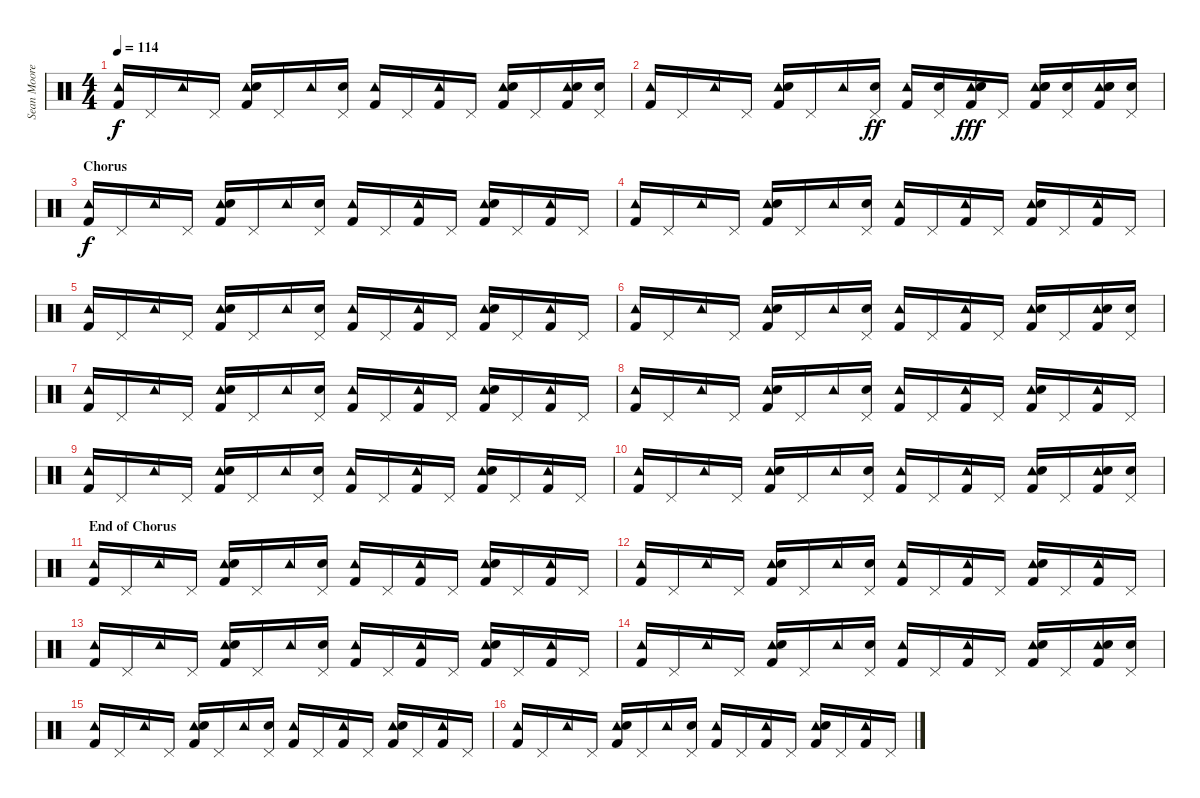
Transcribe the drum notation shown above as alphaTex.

\track ("Sean Moore" "Sean Moore") {instrument percussion}
\staff {score}
\articulation defaults
\ts (4 4)
\tempo 114
\clef neutral
\ks c
("Tambourine (hit)" "Kick (hit) 2").16{dy f} "Pedal Hi-Hat (hit)".16 "Tambourine (hit)".16 "Pedal Hi-Hat (hit)".16 ("Tambourine (hit)" "Snare (hit) 2" "Kick (hit) 2").16 "Pedal Hi-Hat (hit)".16 "Tambourine (hit)".16 ("Snare (hit) 2" "Pedal Hi-Hat (hit)").16 ("Tambourine (hit)" "Kick (hit) 2").16 "Pedal Hi-Hat (hit)".16 ("Tambourine (hit)" "Kick (hit) 2").16 "Pedal Hi-Hat (hit)".16 ("Tambourine (hit)" "Snare (hit) 2" "Kick (hit) 2").16 "Pedal Hi-Hat (hit)".16 ("Tambourine (hit)" "Snare (hit) 2" "Kick (hit) 2").16 ("Snare (hit) 2" "Pedal Hi-Hat (hit)").16 |
("Tambourine (hit)" "Kick (hit) 2").16 "Pedal Hi-Hat (hit)".16 "Tambourine (hit)".16 "Pedal Hi-Hat (hit)".16 ("Tambourine (hit)" "Snare (hit) 2" "Kick (hit) 2").16{volume 15} "Pedal Hi-Hat (hit)".16 "Tambourine (hit)".16 ("Snare (hit) 2" "Pedal Hi-Hat (hit)").16{dy ff} ("Tambourine (hit)" "Kick (hit) 2").16 ("Snare (hit) 2" "Pedal Hi-Hat (hit)").16 ("Tambourine (hit)" "Snare (hit) 2" "Electric Snare (hit)" "Kick (hit) 2").16{dy fff} "Pedal Hi-Hat (hit)".16 ("Tambourine (hit)" "Snare (hit) 2" "Electric Snare (hit)" "Kick (hit) 2").16 ("Snare (hit) 2" "Pedal Hi-Hat (hit)").16 ("Tambourine (hit)" "Snare (hit) 2" "Electric Snare (hit)" "Kick (hit) 2").16 ("Snare (hit) 2" "Pedal Hi-Hat (hit)").16 |
\section ("" "Chorus")
("Tambourine (hit)" "Kick (hit) 2").16{dy f} "Pedal Hi-Hat (hit)".16 "Tambourine (hit)".16 "Pedal Hi-Hat (hit)".16 ("Tambourine (hit)" "Snare (hit) 2" "Kick (hit) 2").16 "Pedal Hi-Hat (hit)".16 "Tambourine (hit)".16 ("Snare (hit) 2" "Pedal Hi-Hat (hit)").16 ("Tambourine (hit)" "Kick (hit) 2").16 "Pedal Hi-Hat (hit)".16 ("Tambourine (hit)" "Kick (hit) 2").16 "Pedal Hi-Hat (hit)".16 ("Tambourine (hit)" "Snare (hit) 2" "Kick (hit) 2").16 "Pedal Hi-Hat (hit)".16 ("Tambourine (hit)" "Kick (hit) 2").16 "Pedal Hi-Hat (hit)".16 |
("Tambourine (hit)" "Kick (hit) 2").16 "Pedal Hi-Hat (hit)".16 "Tambourine (hit)".16 "Pedal Hi-Hat (hit)".16 ("Tambourine (hit)" "Snare (hit) 2" "Kick (hit) 2").16 "Pedal Hi-Hat (hit)".16 "Tambourine (hit)".16 ("Snare (hit) 2" "Pedal Hi-Hat (hit)").16 ("Tambourine (hit)" "Kick (hit) 2").16 "Pedal Hi-Hat (hit)".16 ("Tambourine (hit)" "Kick (hit) 2").16 "Pedal Hi-Hat (hit)".16 ("Tambourine (hit)" "Snare (hit) 2" "Kick (hit) 2").16 "Pedal Hi-Hat (hit)".16 ("Tambourine (hit)" "Kick (hit) 2").16 "Pedal Hi-Hat (hit)".16 |
("Tambourine (hit)" "Kick (hit) 2").16 "Pedal Hi-Hat (hit)".16 "Tambourine (hit)".16 "Pedal Hi-Hat (hit)".16 ("Tambourine (hit)" "Snare (hit) 2" "Kick (hit) 2").16 "Pedal Hi-Hat (hit)".16 "Tambourine (hit)".16 ("Snare (hit) 2" "Pedal Hi-Hat (hit)").16 ("Tambourine (hit)" "Kick (hit) 2").16 "Pedal Hi-Hat (hit)".16 ("Tambourine (hit)" "Kick (hit) 2").16 "Pedal Hi-Hat (hit)".16 ("Tambourine (hit)" "Snare (hit) 2" "Kick (hit) 2").16 "Pedal Hi-Hat (hit)".16 ("Tambourine (hit)" "Kick (hit) 2").16 "Pedal Hi-Hat (hit)".16 |
("Tambourine (hit)" "Kick (hit) 2").16 "Pedal Hi-Hat (hit)".16 "Tambourine (hit)".16 "Pedal Hi-Hat (hit)".16 ("Tambourine (hit)" "Snare (hit) 2" "Kick (hit) 2").16 "Pedal Hi-Hat (hit)".16 "Tambourine (hit)".16 ("Snare (hit) 2" "Pedal Hi-Hat (hit)").16 ("Tambourine (hit)" "Kick (hit) 2").16 "Pedal Hi-Hat (hit)".16 ("Tambourine (hit)" "Kick (hit) 2").16 "Pedal Hi-Hat (hit)".16 ("Tambourine (hit)" "Snare (hit) 2" "Kick (hit) 2").16 "Pedal Hi-Hat (hit)".16 ("Tambourine (hit)" "Snare (hit) 2" "Kick (hit) 2").16 ("Snare (hit) 2" "Pedal Hi-Hat (hit)").16 |
("Tambourine (hit)" "Kick (hit) 2").16 "Pedal Hi-Hat (hit)".16 "Tambourine (hit)".16 "Pedal Hi-Hat (hit)".16 ("Tambourine (hit)" "Snare (hit) 2" "Kick (hit) 2").16 "Pedal Hi-Hat (hit)".16 "Tambourine (hit)".16 ("Snare (hit) 2" "Pedal Hi-Hat (hit)").16 ("Tambourine (hit)" "Kick (hit) 2").16 "Pedal Hi-Hat (hit)".16 ("Tambourine (hit)" "Kick (hit) 2").16 "Pedal Hi-Hat (hit)".16 ("Tambourine (hit)" "Snare (hit) 2" "Kick (hit) 2").16 "Pedal Hi-Hat (hit)".16 ("Tambourine (hit)" "Kick (hit) 2").16 "Pedal Hi-Hat (hit)".16 |
("Tambourine (hit)" "Kick (hit) 2").16 "Pedal Hi-Hat (hit)".16 "Tambourine (hit)".16 "Pedal Hi-Hat (hit)".16 ("Tambourine (hit)" "Snare (hit) 2" "Kick (hit) 2").16 "Pedal Hi-Hat (hit)".16 "Tambourine (hit)".16 ("Snare (hit) 2" "Pedal Hi-Hat (hit)").16 ("Tambourine (hit)" "Kick (hit) 2").16 "Pedal Hi-Hat (hit)".16 ("Tambourine (hit)" "Kick (hit) 2").16 "Pedal Hi-Hat (hit)".16 ("Tambourine (hit)" "Snare (hit) 2" "Kick (hit) 2").16 "Pedal Hi-Hat (hit)".16 ("Tambourine (hit)" "Kick (hit) 2").16 "Pedal Hi-Hat (hit)".16 |
("Tambourine (hit)" "Kick (hit) 2").16 "Pedal Hi-Hat (hit)".16 "Tambourine (hit)".16 "Pedal Hi-Hat (hit)".16 ("Tambourine (hit)" "Snare (hit) 2" "Kick (hit) 2").16 "Pedal Hi-Hat (hit)".16 "Tambourine (hit)".16 ("Snare (hit) 2" "Pedal Hi-Hat (hit)").16 ("Tambourine (hit)" "Kick (hit) 2").16 "Pedal Hi-Hat (hit)".16 ("Tambourine (hit)" "Kick (hit) 2").16 "Pedal Hi-Hat (hit)".16 ("Tambourine (hit)" "Snare (hit) 2" "Kick (hit) 2").16 "Pedal Hi-Hat (hit)".16 ("Tambourine (hit)" "Kick (hit) 2").16 "Pedal Hi-Hat (hit)".16 |
("Tambourine (hit)" "Kick (hit) 2").16 "Pedal Hi-Hat (hit)".16 "Tambourine (hit)".16 "Pedal Hi-Hat (hit)".16 ("Tambourine (hit)" "Snare (hit) 2" "Kick (hit) 2").16 "Pedal Hi-Hat (hit)".16 "Tambourine (hit)".16 ("Snare (hit) 2" "Pedal Hi-Hat (hit)").16 ("Tambourine (hit)" "Kick (hit) 2").16 "Pedal Hi-Hat (hit)".16 ("Tambourine (hit)" "Kick (hit) 2").16 "Pedal Hi-Hat (hit)".16 ("Tambourine (hit)" "Snare (hit) 2" "Kick (hit) 2").16 "Pedal Hi-Hat (hit)".16 ("Tambourine (hit)" "Snare (hit) 2" "Kick (hit) 2").16 ("Snare (hit) 2" "Pedal Hi-Hat (hit)").16 |
\section ("" "End of Chorus")
("Tambourine (hit)" "Kick (hit) 2").16 "Pedal Hi-Hat (hit)".16 "Tambourine (hit)".16 "Pedal Hi-Hat (hit)".16 ("Tambourine (hit)" "Snare (hit) 2" "Kick (hit) 2").16 "Pedal Hi-Hat (hit)".16 "Tambourine (hit)".16 ("Snare (hit) 2" "Pedal Hi-Hat (hit)").16 ("Tambourine (hit)" "Kick (hit) 2").16 "Pedal Hi-Hat (hit)".16 ("Tambourine (hit)" "Kick (hit) 2").16 "Pedal Hi-Hat (hit)".16 ("Tambourine (hit)" "Snare (hit) 2" "Kick (hit) 2").16 "Pedal Hi-Hat (hit)".16 ("Tambourine (hit)" "Kick (hit) 2").16 "Pedal Hi-Hat (hit)".16 |
("Tambourine (hit)" "Kick (hit) 2").16 "Pedal Hi-Hat (hit)".16 "Tambourine (hit)".16 "Pedal Hi-Hat (hit)".16 ("Tambourine (hit)" "Snare (hit) 2" "Kick (hit) 2").16 "Pedal Hi-Hat (hit)".16 "Tambourine (hit)".16 ("Snare (hit) 2" "Pedal Hi-Hat (hit)").16 ("Tambourine (hit)" "Kick (hit) 2").16 "Pedal Hi-Hat (hit)".16 ("Tambourine (hit)" "Kick (hit) 2").16 "Pedal Hi-Hat (hit)".16 ("Tambourine (hit)" "Snare (hit) 2" "Kick (hit) 2").16 "Pedal Hi-Hat (hit)".16 ("Tambourine (hit)" "Kick (hit) 2").16 "Pedal Hi-Hat (hit)".16 |
("Tambourine (hit)" "Kick (hit) 2").16 "Pedal Hi-Hat (hit)".16 "Tambourine (hit)".16 "Pedal Hi-Hat (hit)".16 ("Tambourine (hit)" "Snare (hit) 2" "Kick (hit) 2").16 "Pedal Hi-Hat (hit)".16 "Tambourine (hit)".16 ("Snare (hit) 2" "Pedal Hi-Hat (hit)").16 ("Tambourine (hit)" "Kick (hit) 2").16 "Pedal Hi-Hat (hit)".16 ("Tambourine (hit)" "Kick (hit) 2").16 "Pedal Hi-Hat (hit)".16 ("Tambourine (hit)" "Snare (hit) 2" "Kick (hit) 2").16 "Pedal Hi-Hat (hit)".16 ("Tambourine (hit)" "Kick (hit) 2").16 "Pedal Hi-Hat (hit)".16 |
("Tambourine (hit)" "Kick (hit) 2").16 "Pedal Hi-Hat (hit)".16 "Tambourine (hit)".16 "Pedal Hi-Hat (hit)".16 ("Tambourine (hit)" "Snare (hit) 2" "Kick (hit) 2").16 "Pedal Hi-Hat (hit)".16 "Tambourine (hit)".16 ("Snare (hit) 2" "Pedal Hi-Hat (hit)").16 ("Tambourine (hit)" "Kick (hit) 2").16 "Pedal Hi-Hat (hit)".16 ("Tambourine (hit)" "Kick (hit) 2").16 "Pedal Hi-Hat (hit)".16 ("Tambourine (hit)" "Snare (hit) 2" "Kick (hit) 2").16 "Pedal Hi-Hat (hit)".16 ("Tambourine (hit)" "Snare (hit) 2" "Kick (hit) 2").16 ("Snare (hit) 2" "Pedal Hi-Hat (hit)").16 |
("Tambourine (hit)" "Kick (hit) 2").16 "Pedal Hi-Hat (hit)".16 "Tambourine (hit)".16 "Pedal Hi-Hat (hit)".16 ("Tambourine (hit)" "Snare (hit) 2" "Kick (hit) 2").16 "Pedal Hi-Hat (hit)".16 "Tambourine (hit)".16 ("Snare (hit) 2" "Pedal Hi-Hat (hit)").16 ("Tambourine (hit)" "Kick (hit) 2").16 "Pedal Hi-Hat (hit)".16 ("Tambourine (hit)" "Kick (hit) 2").16 "Pedal Hi-Hat (hit)".16 ("Tambourine (hit)" "Snare (hit) 2" "Kick (hit) 2").16 "Pedal Hi-Hat (hit)".16 ("Tambourine (hit)" "Kick (hit) 2").16 "Pedal Hi-Hat (hit)".16 |
("Tambourine (hit)" "Kick (hit) 2").16 "Pedal Hi-Hat (hit)".16 "Tambourine (hit)".16 "Pedal Hi-Hat (hit)".16 ("Tambourine (hit)" "Snare (hit) 2" "Kick (hit) 2").16 "Pedal Hi-Hat (hit)".16 "Tambourine (hit)".16 ("Snare (hit) 2" "Pedal Hi-Hat (hit)").16 ("Tambourine (hit)" "Kick (hit) 2").16 "Pedal Hi-Hat (hit)".16 ("Tambourine (hit)" "Kick (hit) 2").16 "Pedal Hi-Hat (hit)".16 ("Tambourine (hit)" "Snare (hit) 2" "Kick (hit) 2").16 "Pedal Hi-Hat (hit)".16 ("Tambourine (hit)" "Kick (hit) 2").16 "Pedal Hi-Hat (hit)".16
